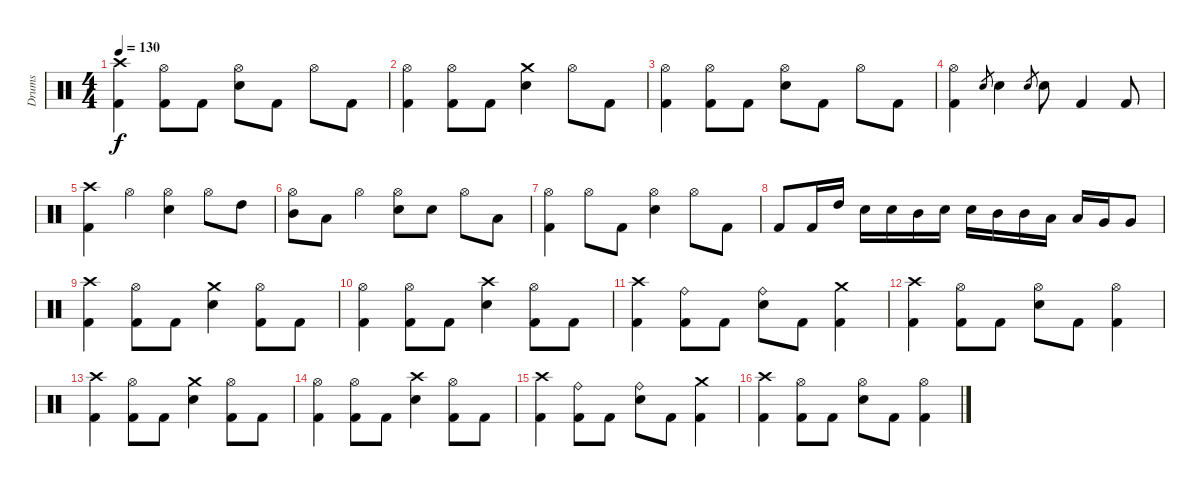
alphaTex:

\track ("Drums" "Drums") {instrument percussion}
\staff {score}
\articulation defaults
\ts (4 4)
\tempo 130
\clef neutral
\ks c
("Crash high (hit)" "Kick (hit) 2").4{dy f} ("Hi-Hat (open)" "Kick (hit) 2").8 "Kick (hit) 2".8 ("Hi-Hat (open)" "Electric Snare (hit)").8 "Kick (hit) 2".8 "Hi-Hat (open)".8 "Kick (hit) 2".8 |
("Hi-Hat (open)" "Kick (hit) 2").4 ("Hi-Hat (open)" "Kick (hit) 2").8 "Kick (hit) 2".8 ("Crash medium (hit)" "Electric Snare (hit)").4 "Hi-Hat (open)".8 "Kick (hit) 2".8 |
("Hi-Hat (open)" "Kick (hit) 2").4 ("Hi-Hat (open)" "Kick (hit) 2").8 "Kick (hit) 2".8 ("Hi-Hat (open)" "Electric Snare (hit)").8 "Kick (hit) 2".8 "Hi-Hat (open)".8 "Kick (hit) 2".8 |
("Hi-Hat (open)" "Kick (hit) 2").4 "Electric Snare (hit)".8{gr} "Electric Snare (hit)".4 "Electric Snare (hit)".8{gr} "Electric Snare (hit)".8 "Kick (hit) 2".4 "Kick (hit) 2".8 |
("Crash high (hit)" "Kick (hit) 2").4 "Hi-Hat (open)".4 ("Hi-Hat (open)" "Electric Snare (hit)").4 "Hi-Hat (open)".8 "High Tom (hit)".8 |
("Hi-Hat (open)" "Mid Tom (hit)").8 "Low Tom (hit)".8 "Hi-Hat (open)".4 ("Hi-Hat (open)" "Electric Snare (hit)").8 "Electric Snare (hit)".8 "Hi-Hat (open)".8 "Low Tom (hit)".8 |
("Hi-Hat (open)" "Kick (hit) 2").4 "Hi-Hat (open)".8 "Kick (hit) 2".8 ("Hi-Hat (open)" "Electric Snare (hit)").4 "Hi-Hat (open)".8 "Kick (hit) 2".8 |
"Kick (hit) 2".8 "Kick (hit) 2".16 "High Tom (hit)".16 "Electric Snare (hit)".16 "Electric Snare (hit)".16 "Mid Tom (hit)".16 "Electric Snare (hit)".16 "Electric Snare (hit)".16 "Mid Tom (hit)".16 "Mid Tom (hit)".16 "Low Tom (hit)".16 "Low Tom (hit)".16 "Very Low Tom (hit)".16 "Very Low Tom (hit)".8 |
("Crash high (hit)" "Kick (hit) 2").4 ("Hi-Hat (open)" "Kick (hit) 2").8 "Kick (hit) 2".8 ("Crash medium (hit)" "Electric Snare (hit)").4 ("Hi-Hat (open)" "Kick (hit) 2").8 "Kick (hit) 2".8 |
("Hi-Hat (open)" "Kick (hit) 2").4 ("Hi-Hat (open)" "Kick (hit) 2").8 "Kick (hit) 2".8 ("Crash high (hit)" "Electric Snare (hit)").4 ("Hi-Hat (open)" "Kick (hit) 2").8 "Kick (hit) 2".8 |
("Crash high (hit)" "Kick (hit) 2").4 ("Ride (bell)" "Kick (hit) 2").8 "Kick (hit) 2".8 ("Ride (bell)" "Electric Snare (hit)").8 "Kick (hit) 2".8 ("Crash medium (hit)" "Kick (hit) 2").4 |
("Crash high (hit)" "Kick (hit) 2").4 ("Hi-Hat (open)" "Kick (hit) 2").8 "Kick (hit) 2".8 ("Hi-Hat (open)" "Electric Snare (hit)").8 "Kick (hit) 2".8 ("Hi-Hat (open)" "Kick (hit) 2").4 |
("Crash high (hit)" "Kick (hit) 2").4 ("Hi-Hat (open)" "Kick (hit) 2").8 "Kick (hit) 2".8 ("Crash medium (hit)" "Electric Snare (hit)").4 ("Hi-Hat (open)" "Kick (hit) 2").8 "Kick (hit) 2".8 |
("Hi-Hat (open)" "Kick (hit) 2").4 ("Hi-Hat (open)" "Kick (hit) 2").8 "Kick (hit) 2".8 ("Crash high (hit)" "Electric Snare (hit)").4 ("Hi-Hat (open)" "Kick (hit) 2").8 "Kick (hit) 2".8 |
("Crash high (hit)" "Kick (hit) 2").4 ("Ride (bell)" "Kick (hit) 2").8 "Kick (hit) 2".8 ("Ride (bell)" "Electric Snare (hit)").8 "Kick (hit) 2".8 ("Crash medium (hit)" "Kick (hit) 2").4 |
("Crash high (hit)" "Kick (hit) 2").4 ("Hi-Hat (open)" "Kick (hit) 2").8 "Kick (hit) 2".8 ("Hi-Hat (open)" "Electric Snare (hit)").8 "Kick (hit) 2".8 ("Hi-Hat (open)" "Kick (hit) 2").4
